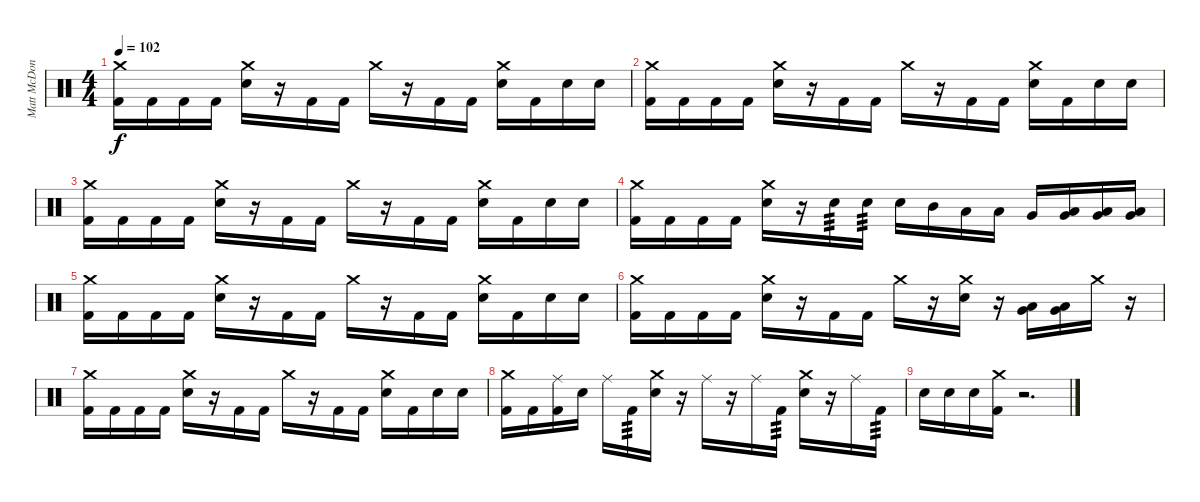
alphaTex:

\track ("Matt McDonough" "Matt McDon") {instrument percussion}
\staff {score}
\articulation defaults
\ts (4 4)
\tempo 102
\clef neutral
\ks c
("Crash medium (hit)" "Kick (hit) 2").16{dy f} "Kick (hit) 2".16 "Kick (hit) 2".16 "Kick (hit) 2".16 ("Crash medium (hit)" "Electric Snare (hit)").16 r.16 "Kick (hit) 2".16 "Kick (hit) 2".16 "Crash medium (hit)".16 r.16 "Kick (hit) 2".16 "Kick (hit) 2".16 ("Crash medium (hit)" "Electric Snare (hit)").16 "Kick (hit) 2".16 "Electric Snare (hit)".16 "Electric Snare (hit)".16 |
("Crash medium (hit)" "Kick (hit) 2").16 "Kick (hit) 2".16 "Kick (hit) 2".16 "Kick (hit) 2".16 ("Crash medium (hit)" "Electric Snare (hit)").16 r.16 "Kick (hit) 2".16 "Kick (hit) 2".16 "Crash medium (hit)".16 r.16 "Kick (hit) 2".16 "Kick (hit) 2".16 ("Crash medium (hit)" "Electric Snare (hit)").16 "Kick (hit) 2".16 "Electric Snare (hit)".16 "Electric Snare (hit)".16 |
("Crash medium (hit)" "Kick (hit) 2").16 "Kick (hit) 2".16 "Kick (hit) 2".16 "Kick (hit) 2".16 ("Crash medium (hit)" "Electric Snare (hit)").16 r.16 "Kick (hit) 2".16 "Kick (hit) 2".16 "Crash medium (hit)".16 r.16 "Kick (hit) 2".16 "Kick (hit) 2".16 ("Crash medium (hit)" "Electric Snare (hit)").16 "Kick (hit) 2".16 "Electric Snare (hit)".16 "Electric Snare (hit)".16 |
("Crash medium (hit)" "Kick (hit) 2").16 "Kick (hit) 2".16 "Kick (hit) 2".16 "Kick (hit) 2".16 ("Crash medium (hit)" "Electric Snare (hit)").16 r.16 "Electric Snare (hit)".16{tp 3} "Electric Snare (hit)".16{tp 3} "Electric Snare (hit)".16 "Mid Tom (hit)".16 "Low Tom (hit)".16 "Low Tom (hit)".16 "Very Low Tom (hit)".16 ("Very Low Tom (hit)" "Low Floor Tom (hit)").16 ("Very Low Tom (hit)" "Low Floor Tom (hit)").16 ("Very Low Tom (hit)" "Low Floor Tom (hit)").16 |
("Crash medium (hit)" "Kick (hit) 2").16 "Kick (hit) 2".16 "Kick (hit) 2".16 "Kick (hit) 2".16 ("Crash medium (hit)" "Electric Snare (hit)").16 r.16 "Kick (hit) 2".16 "Kick (hit) 2".16 "Crash medium (hit)".16 r.16 "Kick (hit) 2".16 "Kick (hit) 2".16 ("Crash medium (hit)" "Electric Snare (hit)").16 "Kick (hit) 2".16 "Electric Snare (hit)".16 "Electric Snare (hit)".16 |
("Crash medium (hit)" "Kick (hit) 2").16 "Kick (hit) 2".16 "Kick (hit) 2".16 "Kick (hit) 2".16 ("Crash medium (hit)" "Electric Snare (hit)").16 r.16 "Kick (hit) 2".16 "Kick (hit) 2".16 "Crash medium (hit)".16 r.16 ("Crash medium (hit)" "Electric Snare (hit)").16 r.16 ("Very Low Tom (hit)" "Low Floor Tom (hit)").16 ("Very Low Tom (hit)" "Low Floor Tom (hit)").16 "Crash medium (hit)".16 r.16 |
("Crash medium (hit)" "Kick (hit) 2").16 "Kick (hit) 2".16 "Kick (hit) 2".16 "Kick (hit) 2".16 ("Crash medium (hit)" "Electric Snare (hit)").16 r.16 "Kick (hit) 2".16 "Kick (hit) 2".16 "Crash medium (hit)".16 r.16 "Kick (hit) 2".16 "Kick (hit) 2".16 ("Crash medium (hit)" "Electric Snare (hit)").16 "Kick (hit) 2".16 "Electric Snare (hit)".16 "Electric Snare (hit)".16 |
("Crash medium (hit)" "Kick (hit) 2").16 "Kick (hit) 2".16 ("Ride (middle)" "Kick (hit) 2").16 "Electric Snare (hit)".16 "Ride (middle)".16 "Kick (hit) 2".16{tp 3} ("Crash medium (hit)" "Electric Snare (hit)").16 r.16 "Ride (middle)".16 r.16 "Ride (middle)".16 "Kick (hit) 2".16{tp 3} ("Crash medium (hit)" "Electric Snare (hit)").16 r.16 "Ride (middle)".16 "Kick (hit) 2".16{tp 3} |
"Electric Snare (hit)".16 "Electric Snare (hit)".16 "Electric Snare (hit)".16 ("Crash medium (hit)" "Kick (hit) 2").16 r.2{d}
